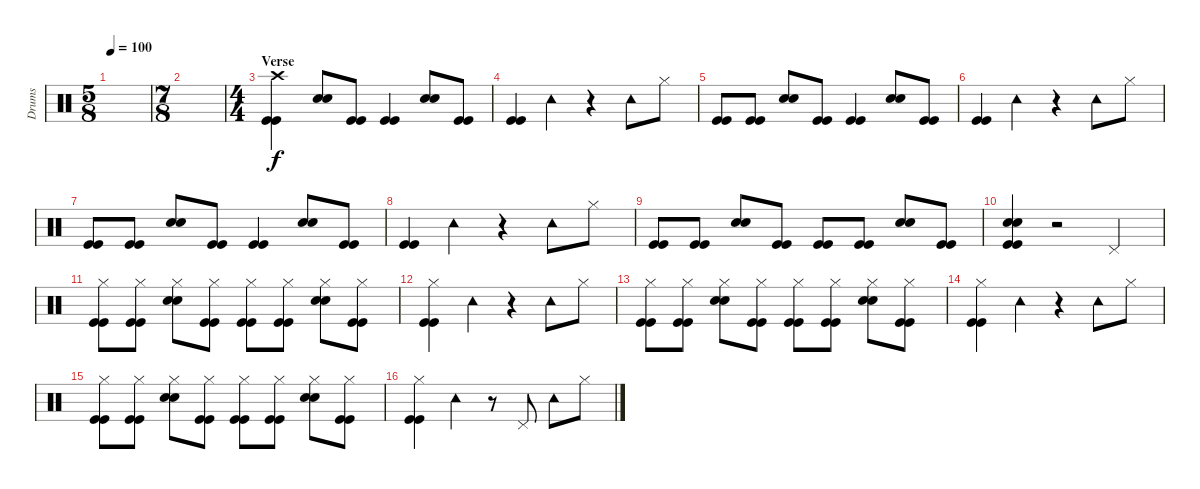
\track ("Drums" "Drums") {instrument percussion}
\staff {score}
\articulation defaults
\ts (5 8)
\tempo 100
\clef neutral
\ks c
|
\ts (7 8)
|
\ts (4 4)
\section ("" "Verse")
("Crash high (hit)" "Kick (hit)" "Kick (hit)").4 ("Snare (hit) 2" "Snare (hit) 2").8 ("Kick (hit)" "Kick (hit)").8 ("Kick (hit)" "Kick (hit)").4 ("Snare (hit) 2" "Snare (hit) 2").8 ("Kick (hit)" "Kick (hit)").8 |
("Kick (hit)" "Kick (hit)").4 "Tambourine (hit)".4 r.4 "Tambourine (hit)".8 "Hi-Hat (closed)".8 |
("Kick (hit)" "Kick (hit)").8 ("Kick (hit)" "Kick (hit)").8 ("Snare (hit) 2" "Snare (hit) 2").8 ("Kick (hit)" "Kick (hit)").8 ("Kick (hit)" "Kick (hit)").4 ("Snare (hit) 2" "Snare (hit) 2").8 ("Kick (hit)" "Kick (hit)").8 |
("Kick (hit)" "Kick (hit)").4 "Tambourine (hit)".4 r.4 "Tambourine (hit)".8 "Hi-Hat (closed)".8 |
("Kick (hit)" "Kick (hit)").8 ("Kick (hit)" "Kick (hit)").8 ("Snare (hit) 2" "Snare (hit) 2").8 ("Kick (hit)" "Kick (hit)").8 ("Kick (hit)" "Kick (hit)").4 ("Snare (hit) 2" "Snare (hit) 2").8 ("Kick (hit)" "Kick (hit)").8 |
("Kick (hit)" "Kick (hit)").4 "Tambourine (hit)".4 r.4 "Tambourine (hit)".8 "Hi-Hat (closed)".8 |
("Kick (hit)" "Kick (hit)").8 ("Kick (hit)" "Kick (hit)").8 ("Snare (hit) 2" "Snare (hit) 2").8 ("Kick (hit)" "Kick (hit)").8 ("Kick (hit)" "Kick (hit)").8 ("Kick (hit)" "Kick (hit)").8 ("Snare (hit) 2" "Snare (hit) 2").8 ("Kick (hit)" "Kick (hit)").8 |
("Snare (hit) 2" "Snare (hit) 2" "Kick (hit)" "Kick (hit)").4 r.2 "Pedal Hi-Hat (hit)".4 |
("Hi-Hat (closed)" "Kick (hit)" "Kick (hit)").8 ("Hi-Hat (closed)" "Kick (hit)" "Kick (hit)").8 ("Hi-Hat (closed)" "Snare (hit) 2" "Snare (hit) 2").8 ("Hi-Hat (closed)" "Kick (hit)" "Kick (hit)").8 ("Hi-Hat (closed)" "Kick (hit)" "Kick (hit)").8 ("Hi-Hat (closed)" "Kick (hit)" "Kick (hit)").8 ("Hi-Hat (closed)" "Snare (hit) 2" "Snare (hit) 2").8 ("Hi-Hat (closed)" "Kick (hit)" "Kick (hit)").8 |
("Hi-Hat (closed)" "Kick (hit)" "Kick (hit)").4 "Tambourine (hit)".4 r.4 "Tambourine (hit)".8 "Hi-Hat (closed)".8 |
("Hi-Hat (closed)" "Kick (hit)" "Kick (hit)").8 ("Hi-Hat (closed)" "Kick (hit)" "Kick (hit)").8 ("Hi-Hat (closed)" "Snare (hit) 2" "Snare (hit) 2").8 ("Hi-Hat (closed)" "Kick (hit)" "Kick (hit)").8 ("Hi-Hat (closed)" "Kick (hit)" "Kick (hit)").8 ("Hi-Hat (closed)" "Kick (hit)" "Kick (hit)").8 ("Hi-Hat (closed)" "Snare (hit) 2" "Snare (hit) 2").8 ("Hi-Hat (closed)" "Kick (hit)" "Kick (hit)").8 |
("Hi-Hat (closed)" "Kick (hit)" "Kick (hit)").4 "Tambourine (hit)".4 r.4 "Tambourine (hit)".8 "Hi-Hat (closed)".8 |
("Hi-Hat (closed)" "Kick (hit)" "Kick (hit)").8 ("Hi-Hat (closed)" "Kick (hit)" "Kick (hit)").8 ("Hi-Hat (closed)" "Snare (hit) 2" "Snare (hit) 2").8 ("Hi-Hat (closed)" "Kick (hit)" "Kick (hit)").8 ("Hi-Hat (closed)" "Kick (hit)" "Kick (hit)").8 ("Hi-Hat (closed)" "Kick (hit)" "Kick (hit)").8 ("Hi-Hat (closed)" "Snare (hit) 2" "Snare (hit) 2").8 ("Hi-Hat (closed)" "Kick (hit)" "Kick (hit)").8 |
("Hi-Hat (closed)" "Kick (hit)" "Kick (hit)").4 "Tambourine (hit)".4 r.8 "Pedal Hi-Hat (hit)".8 "Tambourine (hit)".8 "Hi-Hat (closed)".8
